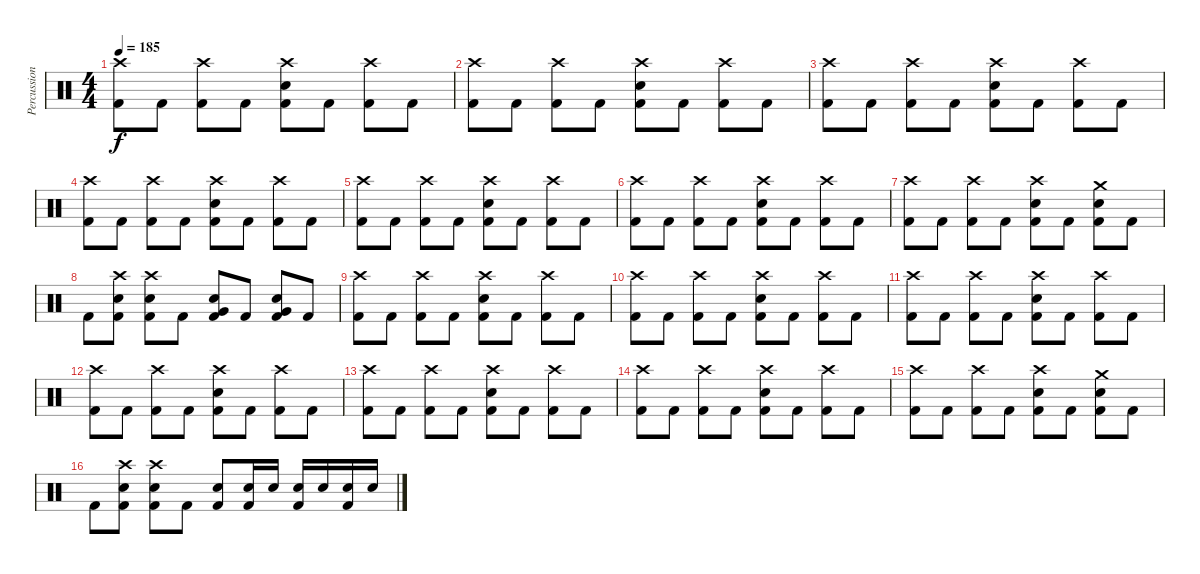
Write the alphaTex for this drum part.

\track ("Percussion" "Percussion") {instrument percussion}
\staff {score}
\articulation defaults
\ts (4 4)
\tempo 185
\clef neutral
\ks c
("Crash high (hit)" "Kick (hit) 2").8{dy f} "Kick (hit) 2".8 ("Crash high (hit)" "Kick (hit) 2").8 "Kick (hit) 2".8 ("Crash high (hit)" "Snare (hit) 2" "Kick (hit) 2").8 "Kick (hit) 2".8 ("Crash high (hit)" "Kick (hit) 2").8 "Kick (hit) 2".8 |
("Crash high (hit)" "Kick (hit) 2").8 "Kick (hit) 2".8 ("Crash high (hit)" "Kick (hit) 2").8 "Kick (hit) 2".8 ("Crash high (hit)" "Snare (hit) 2" "Kick (hit) 2").8 "Kick (hit) 2".8 ("Crash high (hit)" "Kick (hit) 2").8 "Kick (hit) 2".8 |
("Crash high (hit)" "Kick (hit) 2").8 "Kick (hit) 2".8 ("Crash high (hit)" "Kick (hit) 2").8 "Kick (hit) 2".8 ("Crash high (hit)" "Snare (hit) 2" "Kick (hit) 2").8 "Kick (hit) 2".8 ("Crash high (hit)" "Kick (hit) 2").8 "Kick (hit) 2".8 |
("Crash high (hit)" "Kick (hit) 2").8 "Kick (hit) 2".8 ("Crash high (hit)" "Kick (hit) 2").8 "Kick (hit) 2".8 ("Crash high (hit)" "Snare (hit) 2" "Kick (hit) 2").8 "Kick (hit) 2".8 ("Crash high (hit)" "Kick (hit) 2").8 "Kick (hit) 2".8 |
("Crash high (hit)" "Kick (hit) 2").8 "Kick (hit) 2".8 ("Crash high (hit)" "Kick (hit) 2").8 "Kick (hit) 2".8 ("Crash high (hit)" "Snare (hit) 2" "Kick (hit) 2").8 "Kick (hit) 2".8 ("Crash high (hit)" "Kick (hit) 2").8 "Kick (hit) 2".8 |
("Crash high (hit)" "Kick (hit) 2").8 "Kick (hit) 2".8 ("Crash high (hit)" "Kick (hit) 2").8 "Kick (hit) 2".8 ("Crash high (hit)" "Snare (hit) 2" "Kick (hit) 2").8 "Kick (hit) 2".8 ("Crash high (hit)" "Kick (hit) 2").8 "Kick (hit) 2".8 |
("Crash high (hit)" "Kick (hit) 2").8 "Kick (hit) 2".8 ("Crash high (hit)" "Kick (hit) 2").8 "Kick (hit) 2".8 ("Crash high (hit)" "Snare (hit) 2" "Kick (hit) 2").8 "Kick (hit) 2".8 ("Crash medium (hit)" "Snare (hit) 2" "Kick (hit) 2").8 "Kick (hit) 2".8 |
"Kick (hit) 2".8 ("Crash high (hit)" "Snare (hit) 2" "Kick (hit) 2").8 ("Crash high (hit)" "Snare (hit) 2" "Kick (hit) 2").8 "Kick (hit) 2".8 ("Snare (hit) 2" "Very Low Tom (hit)" "Kick (hit) 2").8 "Kick (hit) 2".8 ("Snare (hit) 2" "Very Low Tom (hit)" "Kick (hit) 2").8 "Kick (hit) 2".8 |
("Crash high (hit)" "Kick (hit) 2").8 "Kick (hit) 2".8 ("Crash high (hit)" "Kick (hit) 2").8 "Kick (hit) 2".8 ("Crash high (hit)" "Snare (hit) 2" "Kick (hit) 2").8 "Kick (hit) 2".8 ("Crash high (hit)" "Kick (hit) 2").8 "Kick (hit) 2".8 |
("Crash high (hit)" "Kick (hit) 2").8 "Kick (hit) 2".8 ("Crash high (hit)" "Kick (hit) 2").8 "Kick (hit) 2".8 ("Crash high (hit)" "Snare (hit) 2" "Kick (hit) 2").8 "Kick (hit) 2".8 ("Crash high (hit)" "Kick (hit) 2").8 "Kick (hit) 2".8 |
("Crash high (hit)" "Kick (hit) 2").8 "Kick (hit) 2".8 ("Crash high (hit)" "Kick (hit) 2").8 "Kick (hit) 2".8 ("Crash high (hit)" "Snare (hit) 2" "Kick (hit) 2").8 "Kick (hit) 2".8 ("Crash high (hit)" "Kick (hit) 2").8 "Kick (hit) 2".8 |
("Crash high (hit)" "Kick (hit) 2").8 "Kick (hit) 2".8 ("Crash high (hit)" "Kick (hit) 2").8 "Kick (hit) 2".8 ("Crash high (hit)" "Snare (hit) 2" "Kick (hit) 2").8 "Kick (hit) 2".8 ("Crash high (hit)" "Kick (hit) 2").8 "Kick (hit) 2".8 |
("Crash high (hit)" "Kick (hit) 2").8 "Kick (hit) 2".8 ("Crash high (hit)" "Kick (hit) 2").8 "Kick (hit) 2".8 ("Crash high (hit)" "Snare (hit) 2" "Kick (hit) 2").8 "Kick (hit) 2".8 ("Crash high (hit)" "Kick (hit) 2").8 "Kick (hit) 2".8 |
("Crash high (hit)" "Kick (hit) 2").8 "Kick (hit) 2".8 ("Crash high (hit)" "Kick (hit) 2").8 "Kick (hit) 2".8 ("Crash high (hit)" "Snare (hit) 2" "Kick (hit) 2").8 "Kick (hit) 2".8 ("Crash high (hit)" "Kick (hit) 2").8 "Kick (hit) 2".8 |
("Crash high (hit)" "Kick (hit) 2").8 "Kick (hit) 2".8 ("Crash high (hit)" "Kick (hit) 2").8 "Kick (hit) 2".8 ("Crash high (hit)" "Snare (hit) 2" "Kick (hit) 2").8 "Kick (hit) 2".8 ("Crash medium (hit)" "Snare (hit) 2" "Kick (hit) 2").8 "Kick (hit) 2".8 |
"Kick (hit) 2".8 ("Crash high (hit)" "Snare (hit) 2" "Kick (hit) 2").8 ("Crash high (hit)" "Snare (hit) 2" "Kick (hit) 2").8 "Kick (hit) 2".8 ("Snare (hit) 2" "Kick (hit) 2").8 ("Snare (hit) 2" "Kick (hit) 2").16 "Snare (hit) 2".16 ("Snare (hit) 2" "Kick (hit) 2").16 "Snare (hit) 2".16 ("Snare (hit) 2" "Kick (hit) 2").16 "Snare (hit) 2".16
